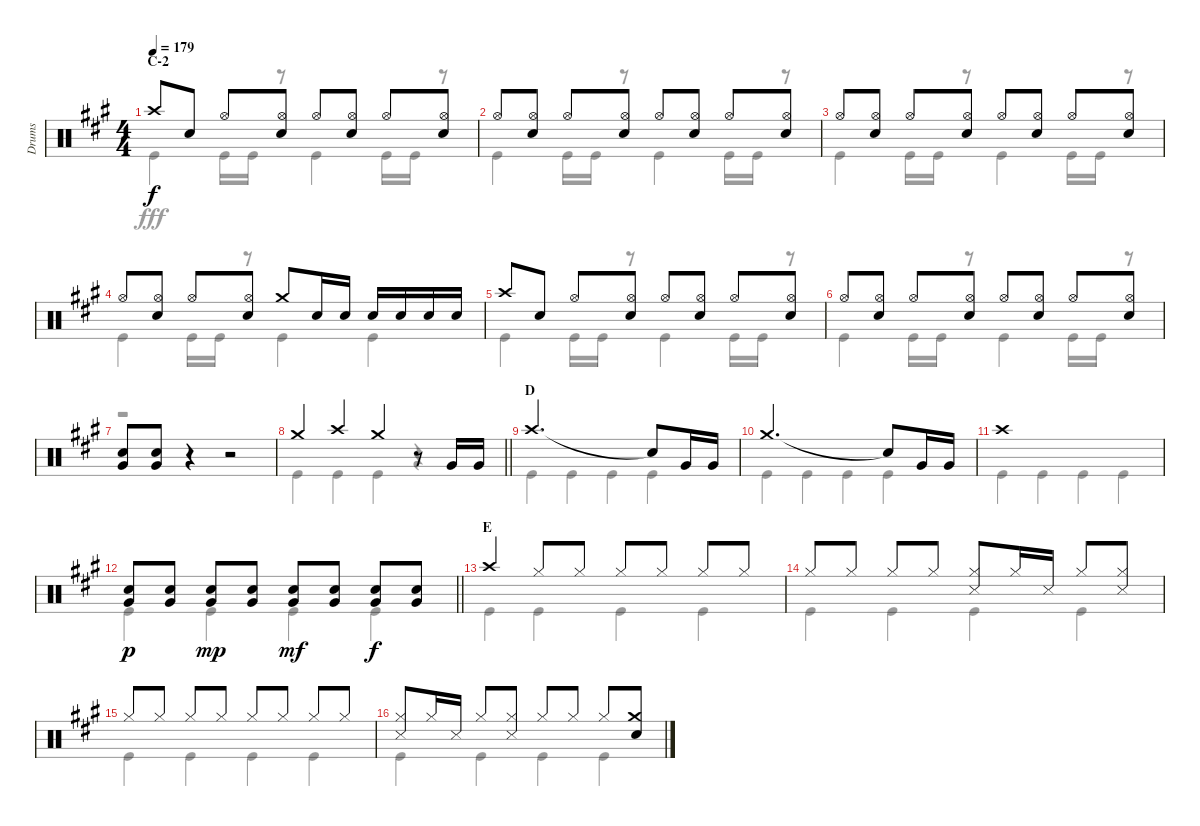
\track ("Drums" "Drums") {instrument percussion}
\staff {score}
\articulation defaults
\voice
\ts (4 4)
\section ("" "C-2")
\tempo 179
\clef neutral
\ks a "Crash high (hit)".8{dy f} "Snare (hit) 2".8 "Hi-Hat (open)".8
("Hi-Hat (open)" "Snare (hit) 2").8 "Hi-Hat (open)".8 ("Hi-Hat (open)" "Snare (hit) 2").8 "Hi-Hat (open)".8 ("Hi-Hat (open)" "Snare (hit) 2").8 |
"Hi-Hat (open)".8 ("Hi-Hat (open)" "Snare (hit) 2").8 "Hi-Hat (open)".8 ("Hi-Hat (open)" "Snare (hit) 2").8 "Hi-Hat (open)".8 ("Hi-Hat (open)" "Snare (hit) 2").8 "Hi-Hat (open)".8 ("Hi-Hat (open)" "Snare (hit) 2").8 |
"Hi-Hat (open)".8 ("Hi-Hat (open)" "Snare (hit) 2").8 "Hi-Hat (open)".8 ("Hi-Hat (open)" "Snare (hit) 2").8 "Hi-Hat (open)".8 ("Hi-Hat (open)" "Snare (hit) 2").8 "Hi-Hat (open)".8 ("Hi-Hat (open)" "Snare (hit) 2").8 |
"Hi-Hat (open)".8 ("Hi-Hat (open)" "Snare (hit) 2").8 "Hi-Hat (open)".8 ("Hi-Hat (open)" "Snare (hit) 2").8 "Crash medium (hit)".8 "Snare (hit) 2".16 "Snare (hit) 2".16 "Snare (hit) 2".16 "Snare (hit) 2".16 "Snare (hit) 2".16 "Snare (hit) 2".16 |
"Crash high (hit)".8 "Snare (hit) 2".8 "Hi-Hat (open)".8 ("Hi-Hat (open)" "Snare (hit) 2").8 "Hi-Hat (open)".8 ("Hi-Hat (open)" "Snare (hit) 2").8 "Hi-Hat (open)".8 ("Hi-Hat (open)" "Snare (hit) 2").8 |
"Hi-Hat (open)".8 ("Hi-Hat (open)" "Snare (hit) 2").8 "Hi-Hat (open)".8 ("Hi-Hat (open)" "Snare (hit) 2").8 "Hi-Hat (open)".8 ("Hi-Hat (open)" "Snare (hit) 2").8 "Hi-Hat (open)".8 ("Hi-Hat (open)" "Snare (hit) 2").8 |
("Snare (hit) 2" "Very Low Tom (hit)").8 ("Snare (hit) 2" "Very Low Tom (hit)").8 r.4 r.2 |
\barLineRight lightlight "Crash medium (hit)".4 "Crash high (hit)".4 "Crash medium (hit)".4
r.8 "Very Low Tom (hit)".16 "Very Low Tom (hit)".16 |
\section ("" "D")
"Crash high (hit)".2{d} "Snare (hit)"{t}.8 "Very Low Tom (hit)".16 "Very Low Tom (hit)".16 |
"Crash medium (hit)".2{d} "Snare (hit)"{t}.8 "Very Low Tom (hit)".16 "Very Low Tom (hit)".16 |
"Crash high (hit)".1 |
\barLineRight lightlight
("Snare (hit) 2" "Very Low Tom (hit)").8{dy p} ("Snare (hit) 2" "Very Low Tom (hit)").8 ("Snare (hit) 2" "Very Low Tom (hit)").8{dy mp} ("Snare (hit) 2" "Very Low Tom (hit)").8 ("Snare (hit) 2" "Very Low Tom (hit)").8{dy mf} ("Snare (hit) 2" "Very Low Tom (hit)").8 ("Snare (hit) 2" "Very Low Tom (hit)").8{dy f} ("Snare (hit) 2" "Very Low Tom (hit)").8 |
\section ("" "E")
"Crash high (hit)".4 "Hi-Hat (closed)".8 "Hi-Hat (closed)".8 "Hi-Hat (closed)".8 "Hi-Hat (closed)".8 "Hi-Hat (closed)".8 "Hi-Hat (closed)".8 |
"Hi-Hat (closed)".8 "Hi-Hat (closed)".8 "Hi-Hat (closed)".8 "Hi-Hat (closed)".8 ("Hi-Hat (closed)" "Snare (side stick) 3").8 "Hi-Hat (closed)".16 "Snare (side stick) 3".16 "Hi-Hat (closed)".8 ("Hi-Hat (closed)" "Snare (side stick) 3").8 |
"Hi-Hat (closed)".8 "Hi-Hat (closed)".8 "Hi-Hat (closed)".8 "Hi-Hat (closed)".8 "Hi-Hat (closed)".8 "Hi-Hat (closed)".8 "Hi-Hat (closed)".8 "Hi-Hat (closed)".8 |
("Hi-Hat (closed)" "Snare (side stick) 3").8 "Hi-Hat (closed)".16 "Snare (side stick) 3".16 "Hi-Hat (closed)".8 ("Hi-Hat (closed)" "Snare (side stick) 3").8 "Hi-Hat (closed)".8 "Hi-Hat (closed)".8 "Hi-Hat (closed)".8 ("Crash medium (hit)" "Snare (hit) 2").8
\voice
\clef neutral
\ottava regular
\simile none
\ks a "Kick (hit)".4{dy fff} "Kick (hit)".16 "Kick (hit)".16
r.8 "Kick (hit)".4 "Kick (hit)".16 "Kick (hit)".16 r.8 |
"Kick (hit)".4 "Kick (hit)".16 "Kick (hit)".16 r.8 "Kick (hit)".4 "Kick (hit)".16 "Kick (hit)".16 r.8 |
"Kick (hit)".4 "Kick (hit)".16 "Kick (hit)".16 r.8 "Kick (hit)".4 "Kick (hit)".16 "Kick (hit)".16 r.8 |
"Kick (hit)".4 "Kick (hit)".16 "Kick (hit)".16 r.8 "Kick (hit)".4 "Kick (hit)".4 |
"Kick (hit)".4 "Kick (hit)".16 "Kick (hit)".16 r.8 "Kick (hit)".4 "Kick (hit)".16 "Kick (hit)".16 r.8 |
"Kick (hit)".4 "Kick (hit)".16 "Kick (hit)".16 r.8 "Kick (hit)".4 "Kick (hit)".16 "Kick (hit)".16 r.8 |
r.1 |
\barLineRight lightlight "Kick (hit)".4 "Kick (hit)".4 "Kick (hit)".4
r.4 |
"Kick (hit)".4 "Kick (hit)".4 "Kick (hit)".4 "Kick (hit)".4 |
"Kick (hit)".4 "Kick (hit)".4 "Kick (hit)".4 "Kick (hit)".4 |
"Kick (hit)".4 "Kick (hit)".4 "Kick (hit)".4 "Kick (hit)".4 |
\barLineRight lightlight "Kick (hit)".4 "Kick (hit)".4 "Kick (hit)".4 "Kick (hit)".4
|
"Kick (hit)".4 "Kick (hit)".4 "Kick (hit)".4 "Kick (hit)".4 |
"Kick (hit)".4 "Kick (hit)".4 "Kick (hit)".4 "Kick (hit)".4 |
"Kick (hit)".4 "Kick (hit)".4 "Kick (hit)".4 "Kick (hit)".4 |
"Kick (hit)".4 "Kick (hit)".4 "Kick (hit)".4 "Kick (hit)".4
